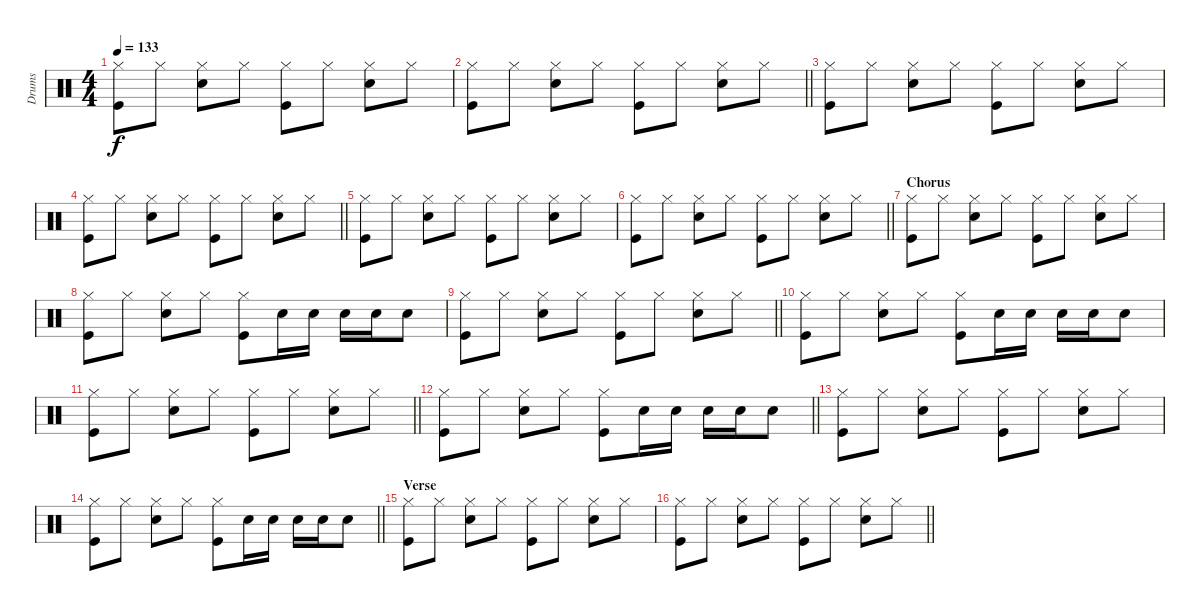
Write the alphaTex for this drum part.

\track ("Drums" "Drums") {instrument percussion}
\staff {score}
\articulation defaults
\ts (4 4)
\tempo 133
\clef neutral
\ks c
("Hi-Hat (closed)" "Kick (hit)").8{dy f} "Hi-Hat (closed)".8 ("Hi-Hat (closed)" "Snare (hit) 2").8 "Hi-Hat (closed)".8 ("Hi-Hat (closed)" "Kick (hit)").8 "Hi-Hat (closed)".8 ("Hi-Hat (closed)" "Snare (hit) 2").8 "Hi-Hat (closed)".8 |
\barLineRight lightlight
("Hi-Hat (closed)" "Kick (hit)").8 "Hi-Hat (closed)".8 ("Hi-Hat (closed)" "Snare (hit) 2").8 "Hi-Hat (closed)".8 ("Hi-Hat (closed)" "Kick (hit)").8 "Hi-Hat (closed)".8 ("Hi-Hat (closed)" "Snare (hit) 2").8 "Hi-Hat (closed)".8 |
("Hi-Hat (closed)" "Kick (hit)").8 "Hi-Hat (closed)".8 ("Hi-Hat (closed)" "Snare (hit) 2").8 "Hi-Hat (closed)".8 ("Hi-Hat (closed)" "Kick (hit)").8 "Hi-Hat (closed)".8 ("Hi-Hat (closed)" "Snare (hit) 2").8 "Hi-Hat (closed)".8 |
\barLineRight lightlight
("Hi-Hat (closed)" "Kick (hit)").8 "Hi-Hat (closed)".8 ("Hi-Hat (closed)" "Snare (hit) 2").8 "Hi-Hat (closed)".8 ("Hi-Hat (closed)" "Kick (hit)").8 "Hi-Hat (closed)".8 ("Hi-Hat (closed)" "Snare (hit) 2").8 "Hi-Hat (closed)".8 |
("Hi-Hat (closed)" "Kick (hit)").8 "Hi-Hat (closed)".8 ("Hi-Hat (closed)" "Snare (hit) 2").8 "Hi-Hat (closed)".8 ("Hi-Hat (closed)" "Kick (hit)").8 "Hi-Hat (closed)".8 ("Hi-Hat (closed)" "Snare (hit) 2").8 "Hi-Hat (closed)".8 |
\barLineRight lightlight
("Hi-Hat (closed)" "Kick (hit)").8 "Hi-Hat (closed)".8 ("Hi-Hat (closed)" "Snare (hit) 2").8 "Hi-Hat (closed)".8 ("Hi-Hat (closed)" "Kick (hit)").8 "Hi-Hat (closed)".8 ("Hi-Hat (closed)" "Snare (hit) 2").8 "Hi-Hat (closed)".8 |
\section ("" "Chorus")
("Hi-Hat (closed)" "Kick (hit)").8 "Hi-Hat (closed)".8 ("Hi-Hat (closed)" "Snare (hit) 2").8 "Hi-Hat (closed)".8 ("Hi-Hat (closed)" "Kick (hit)").8 "Hi-Hat (closed)".8 ("Hi-Hat (closed)" "Snare (hit) 2").8 "Hi-Hat (closed)".8 |
("Hi-Hat (closed)" "Kick (hit)").8 "Hi-Hat (closed)".8 ("Hi-Hat (closed)" "Snare (hit) 2").8 "Hi-Hat (closed)".8 ("Hi-Hat (closed)" "Kick (hit)").8 "Snare (hit) 2".16 "Snare (hit) 2".16 "Snare (hit) 2".16 "Snare (hit) 2".16 "Snare (hit) 2".8 |
\barLineRight lightlight
("Hi-Hat (closed)" "Kick (hit)").8 "Hi-Hat (closed)".8 ("Hi-Hat (closed)" "Snare (hit) 2").8 "Hi-Hat (closed)".8 ("Hi-Hat (closed)" "Kick (hit)").8 "Hi-Hat (closed)".8 ("Hi-Hat (closed)" "Snare (hit) 2").8 "Hi-Hat (closed)".8 |
("Hi-Hat (closed)" "Kick (hit)").8 "Hi-Hat (closed)".8 ("Hi-Hat (closed)" "Snare (hit) 2").8 "Hi-Hat (closed)".8 ("Hi-Hat (closed)" "Kick (hit)").8 "Snare (hit) 2".16 "Snare (hit) 2".16 "Snare (hit) 2".16 "Snare (hit) 2".16 "Snare (hit) 2".8 |
\barLineRight lightlight
("Hi-Hat (closed)" "Kick (hit)").8 "Hi-Hat (closed)".8 ("Hi-Hat (closed)" "Snare (hit) 2").8 "Hi-Hat (closed)".8 ("Hi-Hat (closed)" "Kick (hit)").8 "Hi-Hat (closed)".8 ("Hi-Hat (closed)" "Snare (hit) 2").8 "Hi-Hat (closed)".8 |
\barLineRight lightlight
("Hi-Hat (closed)" "Kick (hit)").8 "Hi-Hat (closed)".8 ("Hi-Hat (closed)" "Snare (hit) 2").8 "Hi-Hat (closed)".8 ("Hi-Hat (closed)" "Kick (hit)").8 "Snare (hit) 2".16 "Snare (hit) 2".16 "Snare (hit) 2".16 "Snare (hit) 2".16 "Snare (hit) 2".8 |
("Hi-Hat (closed)" "Kick (hit)").8 "Hi-Hat (closed)".8 ("Hi-Hat (closed)" "Snare (hit) 2").8 "Hi-Hat (closed)".8 ("Hi-Hat (closed)" "Kick (hit)").8 "Hi-Hat (closed)".8 ("Hi-Hat (closed)" "Snare (hit) 2").8 "Hi-Hat (closed)".8 |
\barLineRight lightlight
("Hi-Hat (closed)" "Kick (hit)").8 "Hi-Hat (closed)".8 ("Hi-Hat (closed)" "Snare (hit) 2").8 "Hi-Hat (closed)".8 ("Hi-Hat (closed)" "Kick (hit)").8 "Snare (hit) 2".16 "Snare (hit) 2".16 "Snare (hit) 2".16 "Snare (hit) 2".16 "Snare (hit) 2".8 |
\section ("" "Verse")
("Hi-Hat (closed)" "Kick (hit)").8 "Hi-Hat (closed)".8 ("Hi-Hat (closed)" "Snare (hit) 2").8 "Hi-Hat (closed)".8 ("Hi-Hat (closed)" "Kick (hit)").8 "Hi-Hat (closed)".8 ("Hi-Hat (closed)" "Snare (hit) 2").8 "Hi-Hat (closed)".8 |
\barLineRight lightlight
("Hi-Hat (closed)" "Kick (hit)").8 "Hi-Hat (closed)".8 ("Hi-Hat (closed)" "Snare (hit) 2").8 "Hi-Hat (closed)".8 ("Hi-Hat (closed)" "Kick (hit)").8 "Hi-Hat (closed)".8 ("Hi-Hat (closed)" "Snare (hit) 2").8 "Hi-Hat (closed)".8
